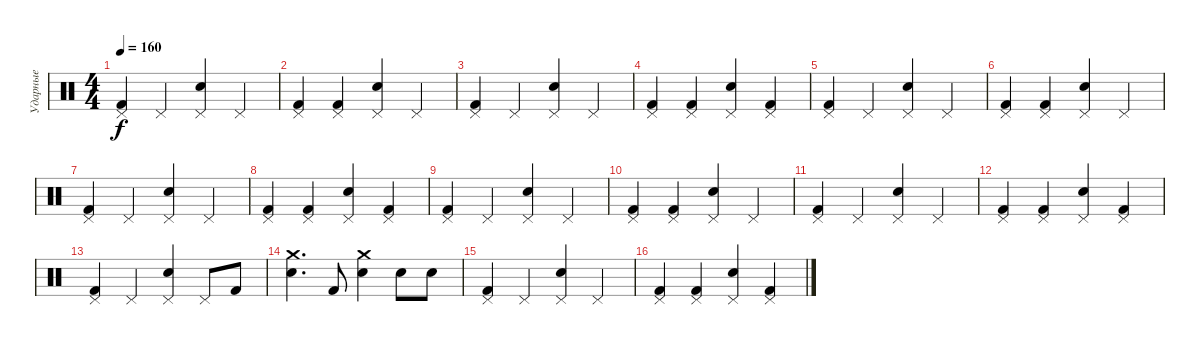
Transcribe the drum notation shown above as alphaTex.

\track ("Ударные" "Ударные") {instrument percussion}
\staff {score}
\articulation defaults
\ts (4 4)
\tempo 160
\clef neutral
\ks c
("Pedal Hi-Hat (hit)" "Kick (hit) 2").4{dy f} "Pedal Hi-Hat (hit)".4 ("Electric Snare (hit)" "Pedal Hi-Hat (hit)").4 "Pedal Hi-Hat (hit)".4 |
("Pedal Hi-Hat (hit)" "Kick (hit) 2").4 ("Pedal Hi-Hat (hit)" "Kick (hit) 2").4 ("Electric Snare (hit)" "Pedal Hi-Hat (hit)").4 "Pedal Hi-Hat (hit)".4 |
("Pedal Hi-Hat (hit)" "Kick (hit) 2").4 "Pedal Hi-Hat (hit)".4 ("Electric Snare (hit)" "Pedal Hi-Hat (hit)").4 "Pedal Hi-Hat (hit)".4 |
("Pedal Hi-Hat (hit)" "Kick (hit) 2").4 ("Pedal Hi-Hat (hit)" "Kick (hit) 2").4 ("Electric Snare (hit)" "Pedal Hi-Hat (hit)").4 ("Pedal Hi-Hat (hit)" "Kick (hit) 2").4 |
("Pedal Hi-Hat (hit)" "Kick (hit) 2").4 "Pedal Hi-Hat (hit)".4 ("Electric Snare (hit)" "Pedal Hi-Hat (hit)").4 "Pedal Hi-Hat (hit)".4 |
("Pedal Hi-Hat (hit)" "Kick (hit) 2").4 ("Pedal Hi-Hat (hit)" "Kick (hit) 2").4 ("Electric Snare (hit)" "Pedal Hi-Hat (hit)").4 "Pedal Hi-Hat (hit)".4 |
("Pedal Hi-Hat (hit)" "Kick (hit) 2").4 "Pedal Hi-Hat (hit)".4 ("Electric Snare (hit)" "Pedal Hi-Hat (hit)").4 "Pedal Hi-Hat (hit)".4 |
("Pedal Hi-Hat (hit)" "Kick (hit) 2").4 ("Pedal Hi-Hat (hit)" "Kick (hit) 2").4 ("Electric Snare (hit)" "Pedal Hi-Hat (hit)").4 ("Pedal Hi-Hat (hit)" "Kick (hit) 2").4 |
("Pedal Hi-Hat (hit)" "Kick (hit) 2").4 "Pedal Hi-Hat (hit)".4 ("Electric Snare (hit)" "Pedal Hi-Hat (hit)").4 "Pedal Hi-Hat (hit)".4 |
("Pedal Hi-Hat (hit)" "Kick (hit) 2").4 ("Pedal Hi-Hat (hit)" "Kick (hit) 2").4 ("Electric Snare (hit)" "Pedal Hi-Hat (hit)").4 "Pedal Hi-Hat (hit)".4 |
("Pedal Hi-Hat (hit)" "Kick (hit) 2").4 "Pedal Hi-Hat (hit)".4 ("Electric Snare (hit)" "Pedal Hi-Hat (hit)").4 "Pedal Hi-Hat (hit)".4 |
("Pedal Hi-Hat (hit)" "Kick (hit) 2").4 ("Pedal Hi-Hat (hit)" "Kick (hit) 2").4 ("Electric Snare (hit)" "Pedal Hi-Hat (hit)").4 ("Pedal Hi-Hat (hit)" "Kick (hit) 2").4 |
("Pedal Hi-Hat (hit)" "Kick (hit) 2").4 "Pedal Hi-Hat (hit)".4 ("Electric Snare (hit)" "Pedal Hi-Hat (hit)").4 "Pedal Hi-Hat (hit)".8 "Kick (hit) 2".8 |
("Crash medium (hit)" "Electric Snare (hit)").4{d} "Kick (hit) 2".8 ("Crash medium (hit)" "Electric Snare (hit)").4 "Electric Snare (hit)".8 "Electric Snare (hit)".8 |
("Pedal Hi-Hat (hit)" "Kick (hit) 2").4 "Pedal Hi-Hat (hit)".4 ("Electric Snare (hit)" "Pedal Hi-Hat (hit)").4 "Pedal Hi-Hat (hit)".4 |
("Pedal Hi-Hat (hit)" "Kick (hit) 2").4 ("Pedal Hi-Hat (hit)" "Kick (hit) 2").4 ("Electric Snare (hit)" "Pedal Hi-Hat (hit)").4 ("Pedal Hi-Hat (hit)" "Kick (hit) 2").4
